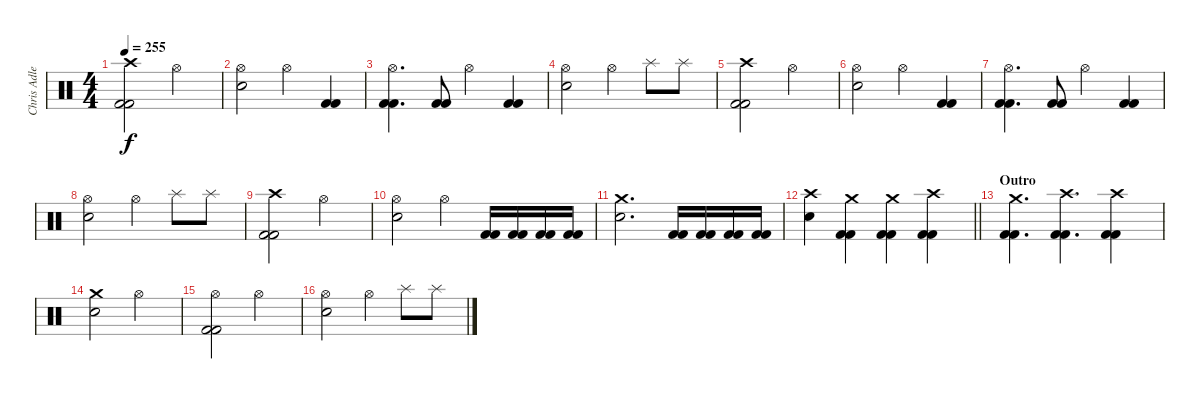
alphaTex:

\track ("Chris Adler" "Chris Adle") {instrument percussion}
\staff {score}
\articulation defaults
\ts (4 4)
\tempo 255
\clef neutral
\ks c
("Crash high (hit)" "Kick (hit) 2" "Kick (hit) 2").2{dy f} "Hi-Hat (open)".2 |
("Hi-Hat (open)" "Electric Snare (hit)").2 "Hi-Hat (open)".4 ("Kick (hit) 2" "Kick (hit) 2").4 |
("Hi-Hat (open)" "Kick (hit) 2" "Kick (hit) 2").4{d} ("Kick (hit) 2" "Kick (hit) 2").8 "Hi-Hat (open)".4 ("Kick (hit) 2" "Kick (hit) 2").4 |
("Hi-Hat (open)" "Electric Snare (hit)").2 "Hi-Hat (open)".4 "Splash (hit)".8 "Splash (hit)".8 |
("Crash high (hit)" "Kick (hit) 2" "Kick (hit) 2").2 "Hi-Hat (open)".2 |
("Hi-Hat (open)" "Electric Snare (hit)").2 "Hi-Hat (open)".4 ("Kick (hit) 2" "Kick (hit) 2").4 |
("Hi-Hat (open)" "Kick (hit) 2" "Kick (hit) 2").4{d} ("Kick (hit) 2" "Kick (hit) 2").8 "Hi-Hat (open)".4 ("Kick (hit) 2" "Kick (hit) 2").4 |
("Hi-Hat (open)" "Electric Snare (hit)").2 "Hi-Hat (open)".4 "Splash (hit)".8 "Splash (hit)".8 |
("Crash high (hit)" "Kick (hit) 2" "Kick (hit) 2").2 "Hi-Hat (open)".2 |
("Hi-Hat (open)" "Electric Snare (hit)").2 "Hi-Hat (open)".4 ("Kick (hit) 2" "Kick (hit) 2").16 ("Kick (hit) 2" "Kick (hit) 2").16 ("Kick (hit) 2" "Kick (hit) 2").16 ("Kick (hit) 2" "Kick (hit) 2").16 |
("Crash medium (hit)" "Electric Snare (hit)").2{d} ("Kick (hit) 2" "Kick (hit) 2").16 ("Kick (hit) 2" "Kick (hit) 2").16 ("Kick (hit) 2" "Kick (hit) 2").16 ("Kick (hit) 2" "Kick (hit) 2").16 |
\barLineRight lightlight
("Crash high (hit)" "Electric Snare (hit)").4 ("Crash medium (hit)" "Kick (hit) 2" "Kick (hit) 2").4 ("Crash medium (hit)" "Kick (hit) 2" "Kick (hit) 2").4 ("Crash high (hit)" "Kick (hit) 2" "Kick (hit) 2").4 |
\section ("" "Outro")
("Crash medium (hit)" "Kick (hit) 2" "Kick (hit) 2").4{d} ("Crash high (hit)" "Kick (hit) 2" "Kick (hit) 2").4{d} ("Crash high (hit)" "Kick (hit) 2" "Kick (hit) 2").4 |
("Crash medium (hit)" "Electric Snare (hit)").2 "Hi-Hat (open)".2 |
("Hi-Hat (open)" "Kick (hit) 2" "Kick (hit) 2").2 "Hi-Hat (open)".2 |
("Hi-Hat (open)" "Electric Snare (hit)").2 "Hi-Hat (open)".4 "Splash (hit)".8 "Splash (hit)".8
